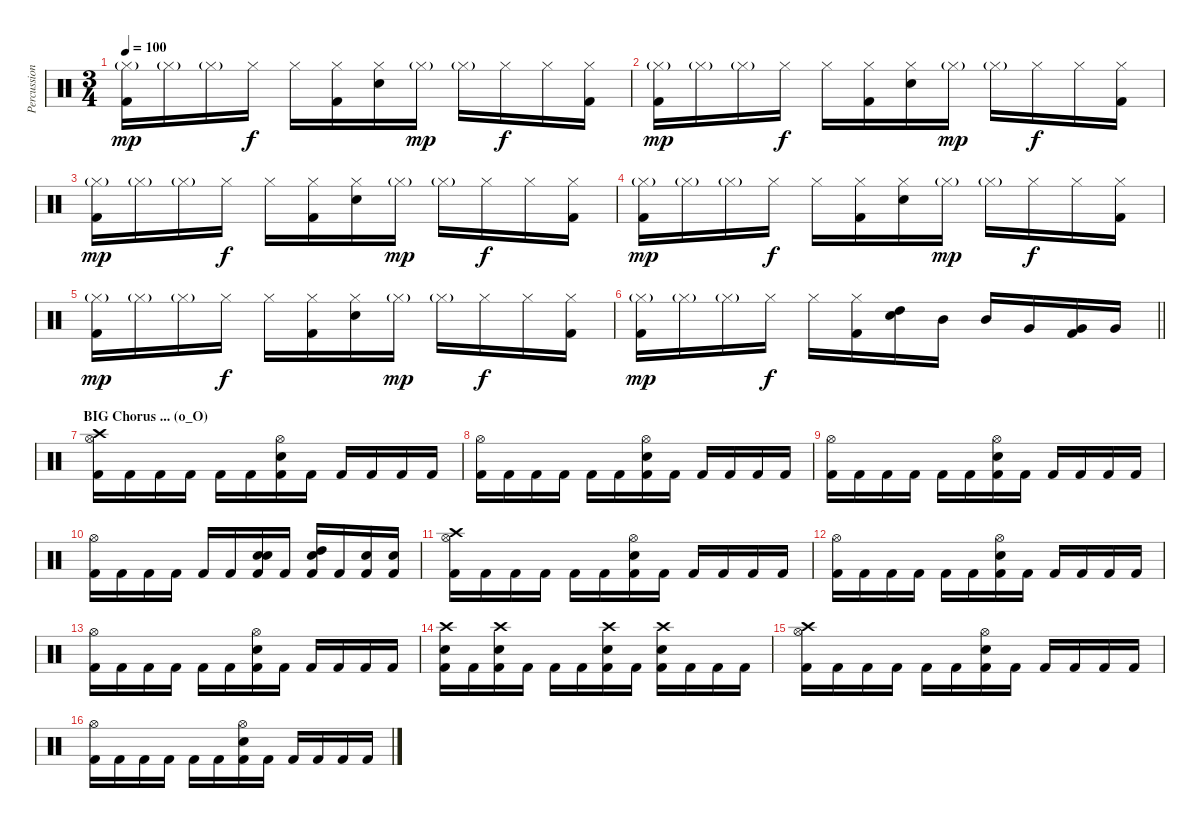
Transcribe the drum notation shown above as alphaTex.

\track ("Percussions" "Percussion") {instrument percussion}
\staff {score}
\articulation defaults
\ts (3 4)
\tempo 100
\clef neutral
\ks c
("Hi-Hat (closed)"{g} "Kick (hit) 2").16{dy mp} "Hi-Hat (closed)"{g}.16 "Hi-Hat (closed)"{g}.16 "Hi-Hat (closed)".16{dy f} "Hi-Hat (closed)".16 ("Hi-Hat (closed)" "Kick (hit) 2").16 ("Hi-Hat (closed)" "Electric Snare (hit)").16 "Hi-Hat (closed)"{g}.16{dy mp} "Hi-Hat (closed)"{g}.16 "Hi-Hat (closed)".16{dy f} "Hi-Hat (closed)".16 ("Hi-Hat (closed)" "Kick (hit) 2").16 |
("Hi-Hat (closed)"{g} "Kick (hit) 2").16{dy mp} "Hi-Hat (closed)"{g}.16 "Hi-Hat (closed)"{g}.16 "Hi-Hat (closed)".16{dy f} "Hi-Hat (closed)".16 ("Hi-Hat (closed)" "Kick (hit) 2").16 ("Hi-Hat (closed)" "Electric Snare (hit)").16 "Hi-Hat (closed)"{g}.16{dy mp} "Hi-Hat (closed)"{g}.16 "Hi-Hat (closed)".16{dy f} "Hi-Hat (closed)".16 ("Hi-Hat (closed)" "Kick (hit) 2").16 |
("Hi-Hat (closed)"{g} "Kick (hit) 2").16{dy mp} "Hi-Hat (closed)"{g}.16 "Hi-Hat (closed)"{g}.16 "Hi-Hat (closed)".16{dy f} "Hi-Hat (closed)".16 ("Hi-Hat (closed)" "Kick (hit) 2").16 ("Hi-Hat (closed)" "Electric Snare (hit)").16 "Hi-Hat (closed)"{g}.16{dy mp} "Hi-Hat (closed)"{g}.16 "Hi-Hat (closed)".16{dy f} "Hi-Hat (closed)".16 ("Hi-Hat (closed)" "Kick (hit) 2").16 |
("Hi-Hat (closed)"{g} "Kick (hit) 2").16{dy mp} "Hi-Hat (closed)"{g}.16 "Hi-Hat (closed)"{g}.16 "Hi-Hat (closed)".16{dy f} "Hi-Hat (closed)".16 ("Hi-Hat (closed)" "Kick (hit) 2").16 ("Hi-Hat (closed)" "Electric Snare (hit)").16 "Hi-Hat (closed)"{g}.16{dy mp} "Hi-Hat (closed)"{g}.16 "Hi-Hat (closed)".16{dy f} "Hi-Hat (closed)".16 ("Hi-Hat (closed)" "Kick (hit) 2").16 |
("Hi-Hat (closed)"{g} "Kick (hit) 2").16{dy mp} "Hi-Hat (closed)"{g}.16 "Hi-Hat (closed)"{g}.16 "Hi-Hat (closed)".16{dy f} "Hi-Hat (closed)".16 ("Hi-Hat (closed)" "Kick (hit) 2").16 ("Hi-Hat (closed)" "Electric Snare (hit)").16 "Hi-Hat (closed)"{g}.16{dy mp} "Hi-Hat (closed)"{g}.16 "Hi-Hat (closed)".16{dy f} "Hi-Hat (closed)".16 ("Hi-Hat (closed)" "Kick (hit) 2").16 |
\barLineRight lightlight
("Hi-Hat (closed)"{g} "Kick (hit) 2").16{dy mp} "Hi-Hat (closed)"{g}.16 "Hi-Hat (closed)"{g}.16 "Hi-Hat (closed)".16{dy f} "Hi-Hat (closed)".16 ("Hi-Hat (closed)" "Kick (hit) 2").16 ("High Tom (hit)" "Electric Snare (hit)").16 "Mid Tom (hit)".16 "Mid Tom (hit)".16 "Very Low Tom (hit)".16 ("Very Low Tom (hit)" "Kick (hit) 2").16 "Very Low Tom (hit)".16 |
\section ("" "BIG Chorus ... (o_O)")
("Crash high (hit)" "Hi-Hat (open)" "Kick (hit) 2").16 "Kick (hit) 2".16 "Kick (hit) 2".16 "Kick (hit) 2".16 "Kick (hit) 2".16 "Kick (hit) 2".16 ("Hi-Hat (open)" "Electric Snare (hit)" "Kick (hit) 2").16 "Kick (hit) 2".16 "Kick (hit) 2".16 "Kick (hit) 2".16 "Kick (hit) 2".16 "Kick (hit) 2".16 |
("Hi-Hat (open)" "Kick (hit) 2").16 "Kick (hit) 2".16 "Kick (hit) 2".16 "Kick (hit) 2".16 "Kick (hit) 2".16 "Kick (hit) 2".16 ("Hi-Hat (open)" "Electric Snare (hit)" "Kick (hit) 2").16 "Kick (hit) 2".16 "Kick (hit) 2".16 "Kick (hit) 2".16 "Kick (hit) 2".16 "Kick (hit) 2".16 |
("Hi-Hat (open)" "Kick (hit) 2").16 "Kick (hit) 2".16 "Kick (hit) 2".16 "Kick (hit) 2".16 "Kick (hit) 2".16 "Kick (hit) 2".16 ("Hi-Hat (open)" "Electric Snare (hit)" "Kick (hit) 2").16 "Kick (hit) 2".16 "Kick (hit) 2".16 "Kick (hit) 2".16 "Kick (hit) 2".16 "Kick (hit) 2".16 |
("Hi-Hat (open)" "Kick (hit) 2").16 "Kick (hit) 2".16 "Kick (hit) 2".16 "Kick (hit) 2".16 "Kick (hit) 2".16 "Kick (hit) 2".16 ("Electric Snare (hit)" "Electric Snare (hit)" "Kick (hit) 2").16{bd 60} "Kick (hit) 2".16 ("Electric Snare (hit)" "High Tom (hit)" "Kick (hit) 2").16{bd 60} "Kick (hit) 2".16 ("Electric Snare (hit)" "Kick (hit) 2").16 ("Electric Snare (hit)" "Kick (hit) 2").16 |
("Crash high (hit)" "Hi-Hat (open)" "Kick (hit) 2").16 "Kick (hit) 2".16 "Kick (hit) 2".16 "Kick (hit) 2".16 "Kick (hit) 2".16 "Kick (hit) 2".16 ("Hi-Hat (open)" "Electric Snare (hit)" "Kick (hit) 2").16 "Kick (hit) 2".16 "Kick (hit) 2".16 "Kick (hit) 2".16 "Kick (hit) 2".16 "Kick (hit) 2".16 |
("Hi-Hat (open)" "Kick (hit) 2").16 "Kick (hit) 2".16 "Kick (hit) 2".16 "Kick (hit) 2".16 "Kick (hit) 2".16 "Kick (hit) 2".16 ("Hi-Hat (open)" "Electric Snare (hit)" "Kick (hit) 2").16 "Kick (hit) 2".16 "Kick (hit) 2".16 "Kick (hit) 2".16 "Kick (hit) 2".16 "Kick (hit) 2".16 |
("Hi-Hat (open)" "Kick (hit) 2").16 "Kick (hit) 2".16 "Kick (hit) 2".16 "Kick (hit) 2".16 "Kick (hit) 2".16 "Kick (hit) 2".16 ("Hi-Hat (open)" "Electric Snare (hit)" "Kick (hit) 2").16 "Kick (hit) 2".16 "Kick (hit) 2".16 "Kick (hit) 2".16 "Kick (hit) 2".16 "Kick (hit) 2".16 |
("Crash high (hit)" "Electric Snare (hit)" "Kick (hit) 2").16 "Kick (hit) 2".16 ("Crash high (hit)" "Electric Snare (hit)" "Kick (hit) 2").16 "Kick (hit) 2".16 "Kick (hit) 2".16 "Kick (hit) 2".16 ("Crash high (hit)" "Electric Snare (hit)" "Kick (hit) 2").16{bd 60} "Kick (hit) 2".16 ("Crash high (hit)" "Electric Snare (hit)" "Kick (hit) 2").16{bd 60} "Kick (hit) 2".16 "Kick (hit) 2".16 "Kick (hit) 2".16 |
("Crash high (hit)" "Hi-Hat (open)" "Kick (hit) 2").16 "Kick (hit) 2".16 "Kick (hit) 2".16 "Kick (hit) 2".16 "Kick (hit) 2".16 "Kick (hit) 2".16 ("Hi-Hat (open)" "Electric Snare (hit)" "Kick (hit) 2").16 "Kick (hit) 2".16 "Kick (hit) 2".16 "Kick (hit) 2".16 "Kick (hit) 2".16 "Kick (hit) 2".16 |
("Hi-Hat (open)" "Kick (hit) 2").16 "Kick (hit) 2".16 "Kick (hit) 2".16 "Kick (hit) 2".16 "Kick (hit) 2".16 "Kick (hit) 2".16 ("Hi-Hat (open)" "Electric Snare (hit)" "Kick (hit) 2").16 "Kick (hit) 2".16 "Kick (hit) 2".16 "Kick (hit) 2".16 "Kick (hit) 2".16 "Kick (hit) 2".16
